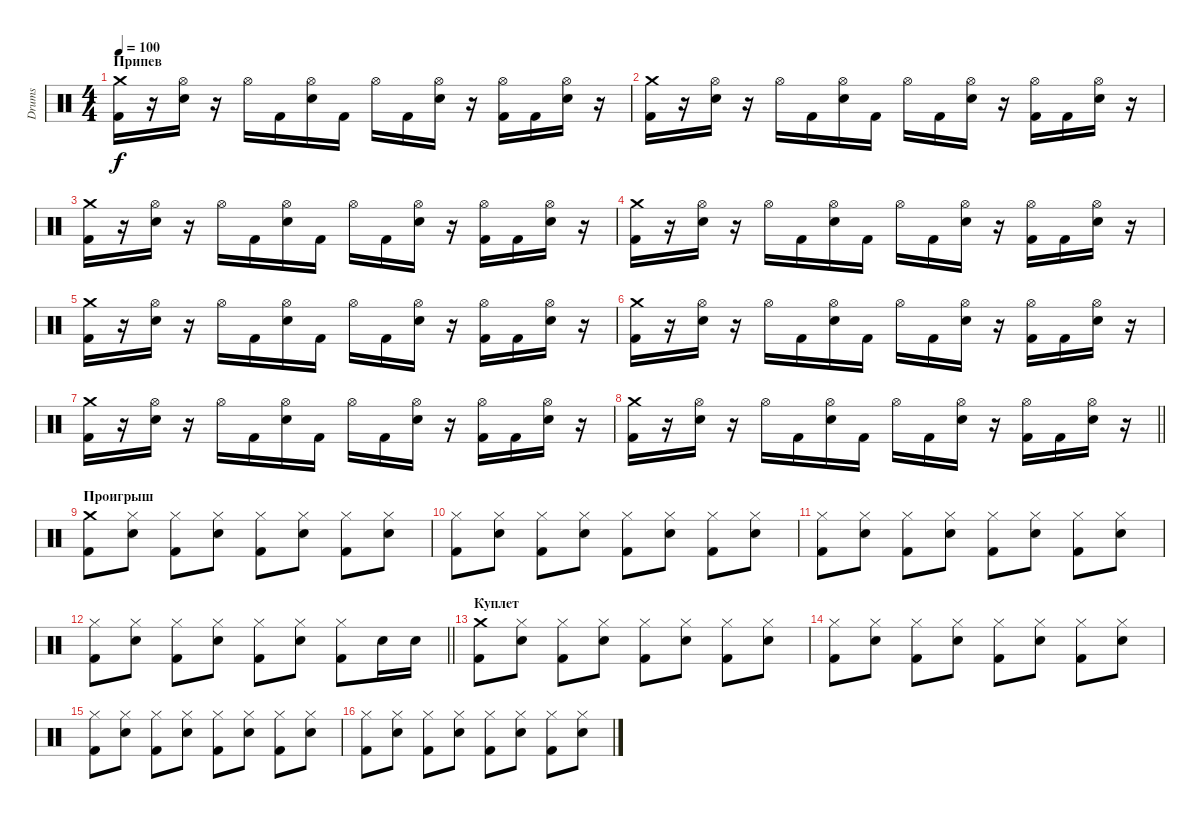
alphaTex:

\track ("Drums" "Drums") {instrument percussion}
\staff {score}
\articulation defaults
\ts (4 4)
\section ("" "Припев")
\tempo 100
\clef neutral
\ks c
("Crash medium (hit)" "Kick (hit) 2").16{dy f} r.16 ("Hi-Hat (open)" "Snare (hit) 2").16 r.16 "Hi-Hat (open)".16 "Kick (hit) 2".16 ("Hi-Hat (open)" "Snare (hit) 2").16 "Kick (hit) 2".16 "Hi-Hat (open)".16 "Kick (hit) 2".16 ("Hi-Hat (open)" "Snare (hit) 2").16 r.16 ("Hi-Hat (open)" "Kick (hit) 2").16 "Kick (hit) 2".16 ("Hi-Hat (open)" "Snare (hit) 2").16 r.16 |
("Crash medium (hit)" "Kick (hit) 2").16 r.16 ("Hi-Hat (open)" "Snare (hit) 2").16 r.16 "Hi-Hat (open)".16 "Kick (hit) 2".16 ("Hi-Hat (open)" "Snare (hit) 2").16 "Kick (hit) 2".16 "Hi-Hat (open)".16 "Kick (hit) 2".16 ("Hi-Hat (open)" "Snare (hit) 2").16 r.16 ("Hi-Hat (open)" "Kick (hit) 2").16 "Kick (hit) 2".16 ("Hi-Hat (open)" "Snare (hit) 2").16 r.16 |
("Crash medium (hit)" "Kick (hit) 2").16 r.16 ("Hi-Hat (open)" "Snare (hit) 2").16 r.16 "Hi-Hat (open)".16 "Kick (hit) 2".16 ("Hi-Hat (open)" "Snare (hit) 2").16 "Kick (hit) 2".16 "Hi-Hat (open)".16 "Kick (hit) 2".16 ("Hi-Hat (open)" "Snare (hit) 2").16 r.16 ("Hi-Hat (open)" "Kick (hit) 2").16 "Kick (hit) 2".16 ("Hi-Hat (open)" "Snare (hit) 2").16 r.16 |
("Crash medium (hit)" "Kick (hit) 2").16 r.16 ("Hi-Hat (open)" "Snare (hit) 2").16 r.16 "Hi-Hat (open)".16 "Kick (hit) 2".16 ("Hi-Hat (open)" "Snare (hit) 2").16 "Kick (hit) 2".16 "Hi-Hat (open)".16 "Kick (hit) 2".16 ("Hi-Hat (open)" "Snare (hit) 2").16 r.16 ("Hi-Hat (open)" "Kick (hit) 2").16 "Kick (hit) 2".16 ("Hi-Hat (open)" "Snare (hit) 2").16 r.16 |
("Crash medium (hit)" "Kick (hit) 2").16 r.16 ("Hi-Hat (open)" "Snare (hit) 2").16 r.16 "Hi-Hat (open)".16 "Kick (hit) 2".16 ("Hi-Hat (open)" "Snare (hit) 2").16 "Kick (hit) 2".16 "Hi-Hat (open)".16 "Kick (hit) 2".16 ("Hi-Hat (open)" "Snare (hit) 2").16 r.16 ("Hi-Hat (open)" "Kick (hit) 2").16 "Kick (hit) 2".16 ("Hi-Hat (open)" "Snare (hit) 2").16 r.16 |
("Crash medium (hit)" "Kick (hit) 2").16 r.16 ("Hi-Hat (open)" "Snare (hit) 2").16 r.16 "Hi-Hat (open)".16 "Kick (hit) 2".16 ("Hi-Hat (open)" "Snare (hit) 2").16 "Kick (hit) 2".16 "Hi-Hat (open)".16 "Kick (hit) 2".16 ("Hi-Hat (open)" "Snare (hit) 2").16 r.16 ("Hi-Hat (open)" "Kick (hit) 2").16 "Kick (hit) 2".16 ("Hi-Hat (open)" "Snare (hit) 2").16 r.16 |
("Crash medium (hit)" "Kick (hit) 2").16 r.16 ("Hi-Hat (open)" "Snare (hit) 2").16 r.16 "Hi-Hat (open)".16 "Kick (hit) 2".16 ("Hi-Hat (open)" "Snare (hit) 2").16 "Kick (hit) 2".16 "Hi-Hat (open)".16 "Kick (hit) 2".16 ("Hi-Hat (open)" "Snare (hit) 2").16 r.16 ("Hi-Hat (open)" "Kick (hit) 2").16 "Kick (hit) 2".16 ("Hi-Hat (open)" "Snare (hit) 2").16 r.16 |
\barLineRight lightlight
("Crash medium (hit)" "Kick (hit) 2").16 r.16 ("Hi-Hat (open)" "Snare (hit) 2").16 r.16 "Hi-Hat (open)".16 "Kick (hit) 2".16 ("Hi-Hat (open)" "Snare (hit) 2").16 "Kick (hit) 2".16 "Hi-Hat (open)".16 "Kick (hit) 2".16 ("Hi-Hat (open)" "Snare (hit) 2").16 r.16 ("Hi-Hat (open)" "Kick (hit) 2").16 "Kick (hit) 2".16 ("Hi-Hat (open)" "Snare (hit) 2").16 r.16 |
\section ("" "Проигрыш")
("Crash medium (hit)" "Kick (hit) 2").8 ("Hi-Hat (closed)" "Snare (hit) 2").8 ("Hi-Hat (closed)" "Kick (hit) 2").8 ("Hi-Hat (closed)" "Snare (hit) 2").8 ("Hi-Hat (closed)" "Kick (hit) 2").8 ("Hi-Hat (closed)" "Snare (hit) 2").8 ("Hi-Hat (closed)" "Kick (hit) 2").8 ("Hi-Hat (closed)" "Snare (hit) 2").8 |
("Hi-Hat (closed)" "Kick (hit) 2").8 ("Hi-Hat (closed)" "Snare (hit) 2").8 ("Hi-Hat (closed)" "Kick (hit) 2").8 ("Hi-Hat (closed)" "Snare (hit) 2").8 ("Hi-Hat (closed)" "Kick (hit) 2").8 ("Hi-Hat (closed)" "Snare (hit) 2").8 ("Hi-Hat (closed)" "Kick (hit) 2").8 ("Hi-Hat (closed)" "Snare (hit) 2").8 |
("Hi-Hat (closed)" "Kick (hit) 2").8 ("Hi-Hat (closed)" "Snare (hit) 2").8 ("Hi-Hat (closed)" "Kick (hit) 2").8 ("Hi-Hat (closed)" "Snare (hit) 2").8 ("Hi-Hat (closed)" "Kick (hit) 2").8 ("Hi-Hat (closed)" "Snare (hit) 2").8 ("Hi-Hat (closed)" "Kick (hit) 2").8 ("Hi-Hat (closed)" "Snare (hit) 2").8 |
\barLineRight lightlight
("Hi-Hat (closed)" "Kick (hit) 2").8 ("Hi-Hat (closed)" "Snare (hit) 2").8 ("Hi-Hat (closed)" "Kick (hit) 2").8 ("Hi-Hat (closed)" "Snare (hit) 2").8 ("Hi-Hat (closed)" "Kick (hit) 2").8 ("Hi-Hat (closed)" "Snare (hit) 2").8 ("Hi-Hat (closed)" "Kick (hit) 2").8 "Snare (hit) 2".16 "Snare (hit) 2".16 |
\section ("" "Куплет")
("Crash medium (hit)" "Kick (hit) 2").8 ("Hi-Hat (closed)" "Snare (hit) 2").8 ("Hi-Hat (closed)" "Kick (hit) 2").8 ("Hi-Hat (closed)" "Snare (hit) 2").8 ("Hi-Hat (closed)" "Kick (hit) 2").8 ("Hi-Hat (closed)" "Snare (hit) 2").8 ("Hi-Hat (closed)" "Kick (hit) 2").8 ("Hi-Hat (closed)" "Snare (hit) 2").8 |
("Hi-Hat (closed)" "Kick (hit) 2").8 ("Hi-Hat (closed)" "Snare (hit) 2").8 ("Hi-Hat (closed)" "Kick (hit) 2").8 ("Hi-Hat (closed)" "Snare (hit) 2").8 ("Hi-Hat (closed)" "Kick (hit) 2").8 ("Hi-Hat (closed)" "Snare (hit) 2").8 ("Hi-Hat (closed)" "Kick (hit) 2").8 ("Hi-Hat (closed)" "Snare (hit) 2").8 |
("Hi-Hat (closed)" "Kick (hit) 2").8 ("Hi-Hat (closed)" "Snare (hit) 2").8 ("Hi-Hat (closed)" "Kick (hit) 2").8 ("Hi-Hat (closed)" "Snare (hit) 2").8 ("Hi-Hat (closed)" "Kick (hit) 2").8 ("Hi-Hat (closed)" "Snare (hit) 2").8 ("Hi-Hat (closed)" "Kick (hit) 2").8 ("Hi-Hat (closed)" "Snare (hit) 2").8 |
("Hi-Hat (closed)" "Kick (hit) 2").8 ("Hi-Hat (closed)" "Snare (hit) 2").8 ("Hi-Hat (closed)" "Kick (hit) 2").8 ("Hi-Hat (closed)" "Snare (hit) 2").8 ("Hi-Hat (closed)" "Kick (hit) 2").8 ("Hi-Hat (closed)" "Snare (hit) 2").8 ("Hi-Hat (closed)" "Kick (hit) 2").8 ("Hi-Hat (closed)" "Snare (hit) 2").8
